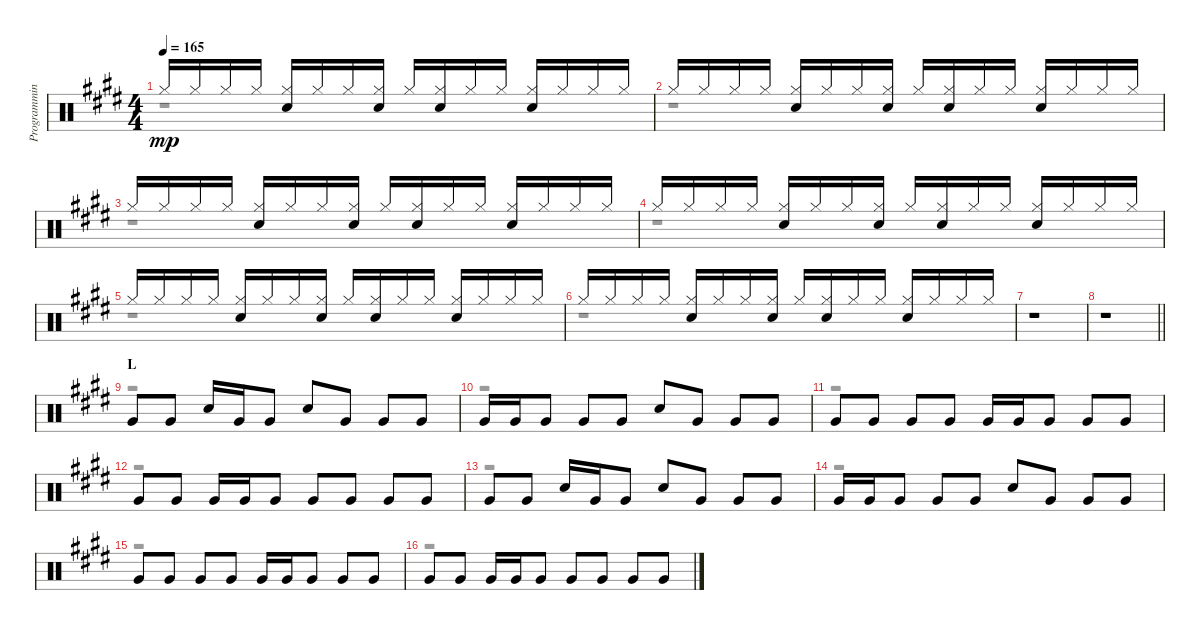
\track ("Programming I" "Programmin") {instrument percussion}
\staff {score}
\articulation defaults
\voice
\ts (4 4)
\tempo 165
\clef neutral
\ks e "Hi-Hat (closed)".16{dy mp} "Hi-Hat (closed)".16 "Hi-Hat (closed)".16 "Hi-Hat (closed)".16
("Hi-Hat (closed)" "Electric Snare (hit)").16 "Hi-Hat (closed)".16 "Hi-Hat (closed)".16 ("Hi-Hat (closed)" "Electric Snare (hit)").16 "Hi-Hat (closed)".16 ("Hi-Hat (closed)" "Electric Snare (hit)").16 "Hi-Hat (closed)".16 "Hi-Hat (closed)".16 ("Hi-Hat (closed)" "Electric Snare (hit)").16 "Hi-Hat (closed)".16 "Hi-Hat (closed)".16 "Hi-Hat (closed)".16 |
"Hi-Hat (closed)".16 "Hi-Hat (closed)".16 "Hi-Hat (closed)".16 "Hi-Hat (closed)".16 ("Hi-Hat (closed)" "Electric Snare (hit)").16 "Hi-Hat (closed)".16 "Hi-Hat (closed)".16 ("Hi-Hat (closed)" "Electric Snare (hit)").16 "Hi-Hat (closed)".16 ("Hi-Hat (closed)" "Electric Snare (hit)").16 "Hi-Hat (closed)".16 "Hi-Hat (closed)".16 ("Hi-Hat (closed)" "Electric Snare (hit)").16 "Hi-Hat (closed)".16 "Hi-Hat (closed)".16 "Hi-Hat (closed)".16 |
"Hi-Hat (closed)".16 "Hi-Hat (closed)".16 "Hi-Hat (closed)".16 "Hi-Hat (closed)".16 ("Hi-Hat (closed)" "Electric Snare (hit)").16 "Hi-Hat (closed)".16 "Hi-Hat (closed)".16 ("Hi-Hat (closed)" "Electric Snare (hit)").16 "Hi-Hat (closed)".16 ("Hi-Hat (closed)" "Electric Snare (hit)").16 "Hi-Hat (closed)".16 "Hi-Hat (closed)".16 ("Hi-Hat (closed)" "Electric Snare (hit)").16 "Hi-Hat (closed)".16 "Hi-Hat (closed)".16 "Hi-Hat (closed)".16 |
"Hi-Hat (closed)".16 "Hi-Hat (closed)".16 "Hi-Hat (closed)".16 "Hi-Hat (closed)".16 ("Hi-Hat (closed)" "Electric Snare (hit)").16 "Hi-Hat (closed)".16 "Hi-Hat (closed)".16 ("Hi-Hat (closed)" "Electric Snare (hit)").16 "Hi-Hat (closed)".16 ("Hi-Hat (closed)" "Electric Snare (hit)").16 "Hi-Hat (closed)".16 "Hi-Hat (closed)".16 ("Hi-Hat (closed)" "Electric Snare (hit)").16 "Hi-Hat (closed)".16 "Hi-Hat (closed)".16 "Hi-Hat (closed)".16 |
"Hi-Hat (closed)".16 "Hi-Hat (closed)".16 "Hi-Hat (closed)".16 "Hi-Hat (closed)".16 ("Hi-Hat (closed)" "Electric Snare (hit)").16 "Hi-Hat (closed)".16 "Hi-Hat (closed)".16 ("Hi-Hat (closed)" "Electric Snare (hit)").16 "Hi-Hat (closed)".16 ("Hi-Hat (closed)" "Electric Snare (hit)").16 "Hi-Hat (closed)".16 "Hi-Hat (closed)".16 ("Hi-Hat (closed)" "Electric Snare (hit)").16 "Hi-Hat (closed)".16 "Hi-Hat (closed)".16 "Hi-Hat (closed)".16 |
"Hi-Hat (closed)".16 "Hi-Hat (closed)".16 "Hi-Hat (closed)".16 "Hi-Hat (closed)".16 ("Hi-Hat (closed)" "Electric Snare (hit)").16 "Hi-Hat (closed)".16 "Hi-Hat (closed)".16 ("Hi-Hat (closed)" "Electric Snare (hit)").16 "Hi-Hat (closed)".16 ("Hi-Hat (closed)" "Electric Snare (hit)").16 "Hi-Hat (closed)".16 "Hi-Hat (closed)".16 ("Hi-Hat (closed)" "Electric Snare (hit)").16 "Hi-Hat (closed)".16 "Hi-Hat (closed)".16 "Hi-Hat (closed)".16 |
r.1 |
\barLineRight lightlight
r.1 |
\section ("" "L")
"Very Low Tom (hit)".8 "Very Low Tom (hit)".8 "Electric Snare (hit)".16 "Very Low Tom (hit)".16 "Very Low Tom (hit)".8 "Electric Snare (hit)".8 "Very Low Tom (hit)".8 "Very Low Tom (hit)".8 "Very Low Tom (hit)".8 |
"Very Low Tom (hit)".16 "Very Low Tom (hit)".16 "Very Low Tom (hit)".8 "Very Low Tom (hit)".8 "Very Low Tom (hit)".8 "Electric Snare (hit)".8 "Very Low Tom (hit)".8 "Very Low Tom (hit)".8 "Very Low Tom (hit)".8 |
"Very Low Tom (hit)".8 "Very Low Tom (hit)".8 "Very Low Tom (hit)".8 "Very Low Tom (hit)".8 "Very Low Tom (hit)".16 "Very Low Tom (hit)".16 "Very Low Tom (hit)".8 "Very Low Tom (hit)".8 "Very Low Tom (hit)".8 |
"Very Low Tom (hit)".8 "Very Low Tom (hit)".8 "Very Low Tom (hit)".16 "Very Low Tom (hit)".16 "Very Low Tom (hit)".8 "Very Low Tom (hit)".8 "Very Low Tom (hit)".8 "Very Low Tom (hit)".8 "Very Low Tom (hit)".8 |
"Very Low Tom (hit)".8 "Very Low Tom (hit)".8 "Electric Snare (hit)".16 "Very Low Tom (hit)".16 "Very Low Tom (hit)".8 "Electric Snare (hit)".8 "Very Low Tom (hit)".8 "Very Low Tom (hit)".8 "Very Low Tom (hit)".8 |
"Very Low Tom (hit)".16 "Very Low Tom (hit)".16 "Very Low Tom (hit)".8 "Very Low Tom (hit)".8 "Very Low Tom (hit)".8 "Electric Snare (hit)".8 "Very Low Tom (hit)".8 "Very Low Tom (hit)".8 "Very Low Tom (hit)".8 |
"Very Low Tom (hit)".8 "Very Low Tom (hit)".8 "Very Low Tom (hit)".8 "Very Low Tom (hit)".8 "Very Low Tom (hit)".16 "Very Low Tom (hit)".16 "Very Low Tom (hit)".8 "Very Low Tom (hit)".8 "Very Low Tom (hit)".8 |
"Very Low Tom (hit)".8 "Very Low Tom (hit)".8 "Very Low Tom (hit)".16 "Very Low Tom (hit)".16 "Very Low Tom (hit)".8 "Very Low Tom (hit)".8 "Very Low Tom (hit)".8 "Very Low Tom (hit)".8 "Very Low Tom (hit)".8
\voice
\clef neutral
\ottava regular
\simile none
\ks e
r.1{dy mp} |
r.1 |
r.1 |
r.1 |
r.1 |
r.1 |
r.1 |
\barLineRight lightlight
r.1 |
r.1 |
r.1 |
r.1 |
r.1 |
r.1 |
r.1 |
r.1 |
r.1
